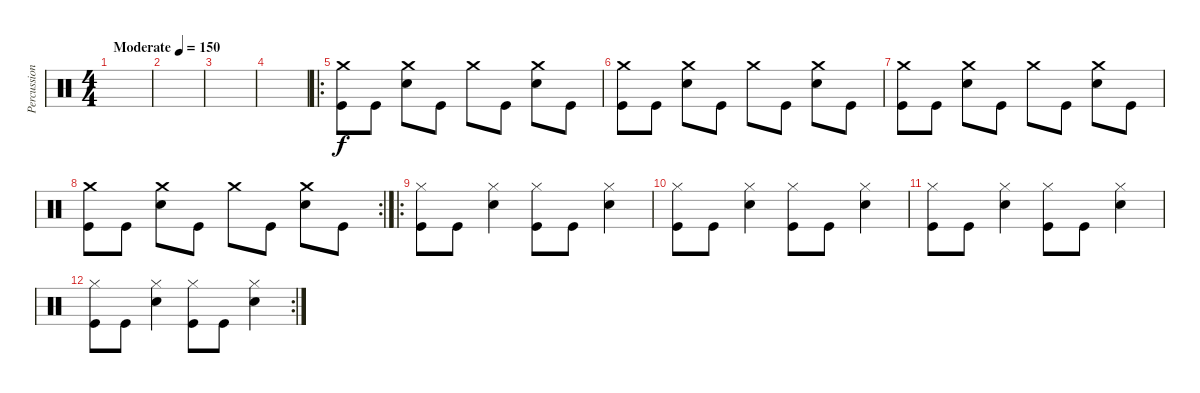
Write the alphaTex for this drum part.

\track ("Percussion" "Percussion") {instrument percussion}
\staff {score}
\articulation defaults
\ts (4 4)
\tempo (150 "Moderate")
\clef neutral
\ks c
|
|
|
|
\ro
("Crash medium (hit)" "Kick (hit)").8 "Kick (hit)".8 ("Crash medium (hit)" "Snare (hit) 2").8 "Kick (hit)".8 "Crash medium (hit)".8 "Kick (hit)".8 ("Crash medium (hit)" "Snare (hit) 2").8 "Kick (hit)".8 |
("Crash medium (hit)" "Kick (hit)").8 "Kick (hit)".8 ("Crash medium (hit)" "Snare (hit) 2").8 "Kick (hit)".8 "Crash medium (hit)".8 "Kick (hit)".8 ("Crash medium (hit)" "Snare (hit) 2").8 "Kick (hit)".8 |
("Crash medium (hit)" "Kick (hit)").8 "Kick (hit)".8 ("Crash medium (hit)" "Snare (hit) 2").8 "Kick (hit)".8 "Crash medium (hit)".8 "Kick (hit)".8 ("Crash medium (hit)" "Snare (hit) 2").8 "Kick (hit)".8 |
\rc 2
("Crash medium (hit)" "Kick (hit)").8 "Kick (hit)".8 ("Crash medium (hit)" "Snare (hit) 2").8 "Kick (hit)".8 "Crash medium (hit)".8 "Kick (hit)".8 ("Crash medium (hit)" "Snare (hit) 2").8 "Kick (hit)".8 |
\ro
("Hi-Hat (closed)" "Kick (hit)").8 "Kick (hit)".8 ("Hi-Hat (closed)" "Snare (hit) 2").4 ("Hi-Hat (closed)" "Kick (hit)").8 "Kick (hit)".8 ("Hi-Hat (closed)" "Snare (hit) 2").4 |
("Hi-Hat (closed)" "Kick (hit)").8 "Kick (hit)".8 ("Hi-Hat (closed)" "Snare (hit) 2").4 ("Hi-Hat (closed)" "Kick (hit)").8 "Kick (hit)".8 ("Hi-Hat (closed)" "Snare (hit) 2").4 |
("Hi-Hat (closed)" "Kick (hit)").8 "Kick (hit)".8 ("Hi-Hat (closed)" "Snare (hit) 2").4 ("Hi-Hat (closed)" "Kick (hit)").8 "Kick (hit)".8 ("Hi-Hat (closed)" "Snare (hit) 2").4 |
\rc 2
("Hi-Hat (closed)" "Kick (hit)").8 "Kick (hit)".8 ("Hi-Hat (closed)" "Snare (hit) 2").4 ("Hi-Hat (closed)" "Kick (hit)").8 "Kick (hit)".8 ("Hi-Hat (closed)" "Snare (hit) 2").4
